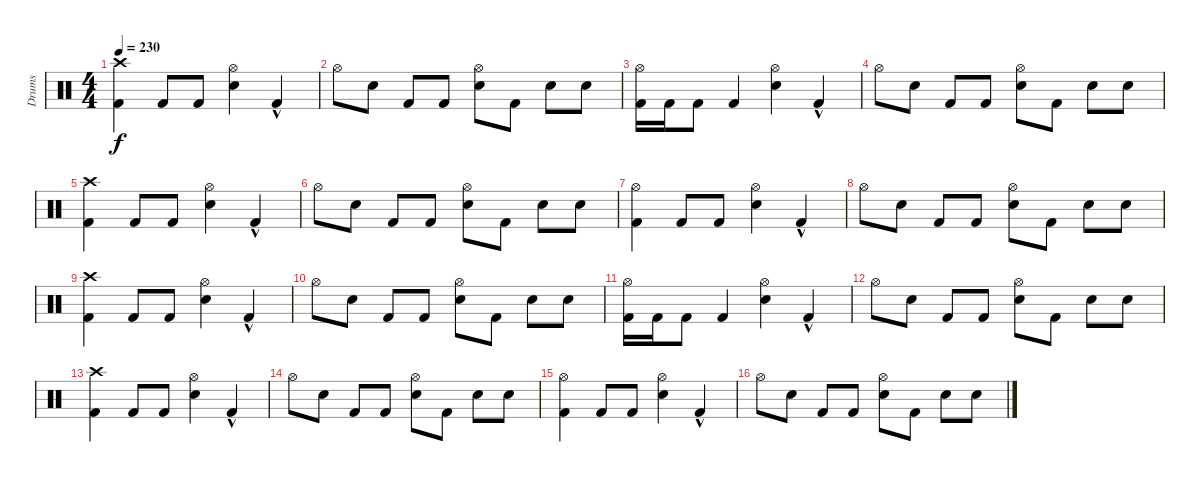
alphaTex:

\track ("Drums" "Drums") {instrument percussion}
\staff {score}
\articulation defaults
\ts (4 4)
\tempo 230
\clef neutral
\ks c
("Crash high (hit)" "Kick (hit) 2").4{dy f} "Kick (hit) 2".8 "Kick (hit) 2".8 ("Hi-Hat (open)" "Electric Snare (hit)").4 "Kick (hit) 2"{hac}.4 |
"Hi-Hat (open)".8 "Electric Snare (hit)".8 "Kick (hit) 2".8 "Kick (hit) 2".8 ("Hi-Hat (open)" "Electric Snare (hit)").8 "Kick (hit) 2".8 "Electric Snare (hit)".8 "Electric Snare (hit)".8 |
("Hi-Hat (open)" "Kick (hit) 2").16 "Kick (hit) 2".16 "Kick (hit) 2".8 "Kick (hit) 2".4 ("Hi-Hat (open)" "Electric Snare (hit)").4 "Kick (hit) 2"{hac}.4 |
"Hi-Hat (open)".8 "Electric Snare (hit)".8 "Kick (hit) 2".8 "Kick (hit) 2".8 ("Hi-Hat (open)" "Electric Snare (hit)").8 "Kick (hit) 2".8 "Electric Snare (hit)".8 "Electric Snare (hit)".8 |
("Crash high (hit)" "Kick (hit) 2").4 "Kick (hit) 2".8 "Kick (hit) 2".8 ("Hi-Hat (open)" "Electric Snare (hit)").4 "Kick (hit) 2"{hac}.4 |
"Hi-Hat (open)".8 "Electric Snare (hit)".8 "Kick (hit) 2".8 "Kick (hit) 2".8 ("Hi-Hat (open)" "Electric Snare (hit)").8 "Kick (hit) 2".8 "Electric Snare (hit)".8 "Electric Snare (hit)".8 |
("Hi-Hat (open)" "Kick (hit) 2").4 "Kick (hit) 2".8 "Kick (hit) 2".8 ("Hi-Hat (open)" "Electric Snare (hit)").4 "Kick (hit) 2"{hac}.4 |
"Hi-Hat (open)".8 "Electric Snare (hit)".8 "Kick (hit) 2".8 "Kick (hit) 2".8 ("Hi-Hat (open)" "Electric Snare (hit)").8 "Kick (hit) 2".8 "Electric Snare (hit)".8 "Electric Snare (hit)".8 |
("Crash high (hit)" "Kick (hit) 2").4 "Kick (hit) 2".8 "Kick (hit) 2".8 ("Hi-Hat (open)" "Electric Snare (hit)").4 "Kick (hit) 2"{hac}.4 |
"Hi-Hat (open)".8 "Electric Snare (hit)".8 "Kick (hit) 2".8 "Kick (hit) 2".8 ("Hi-Hat (open)" "Electric Snare (hit)").8 "Kick (hit) 2".8 "Electric Snare (hit)".8 "Electric Snare (hit)".8 |
("Hi-Hat (open)" "Kick (hit) 2").16 "Kick (hit) 2".16 "Kick (hit) 2".8 "Kick (hit) 2".4 ("Hi-Hat (open)" "Electric Snare (hit)").4 "Kick (hit) 2"{hac}.4 |
"Hi-Hat (open)".8 "Electric Snare (hit)".8 "Kick (hit) 2".8 "Kick (hit) 2".8 ("Hi-Hat (open)" "Electric Snare (hit)").8 "Kick (hit) 2".8 "Electric Snare (hit)".8 "Electric Snare (hit)".8 |
("Crash high (hit)" "Kick (hit) 2").4 "Kick (hit) 2".8 "Kick (hit) 2".8 ("Hi-Hat (open)" "Electric Snare (hit)").4 "Kick (hit) 2"{hac}.4 |
"Hi-Hat (open)".8 "Electric Snare (hit)".8 "Kick (hit) 2".8 "Kick (hit) 2".8 ("Hi-Hat (open)" "Electric Snare (hit)").8 "Kick (hit) 2".8 "Electric Snare (hit)".8 "Electric Snare (hit)".8 |
("Hi-Hat (open)" "Kick (hit) 2").4 "Kick (hit) 2".8 "Kick (hit) 2".8 ("Hi-Hat (open)" "Electric Snare (hit)").4 "Kick (hit) 2"{hac}.4 |
"Hi-Hat (open)".8 "Electric Snare (hit)".8 "Kick (hit) 2".8 "Kick (hit) 2".8 ("Hi-Hat (open)" "Electric Snare (hit)").8 "Kick (hit) 2".8 "Electric Snare (hit)".8 "Electric Snare (hit)".8
